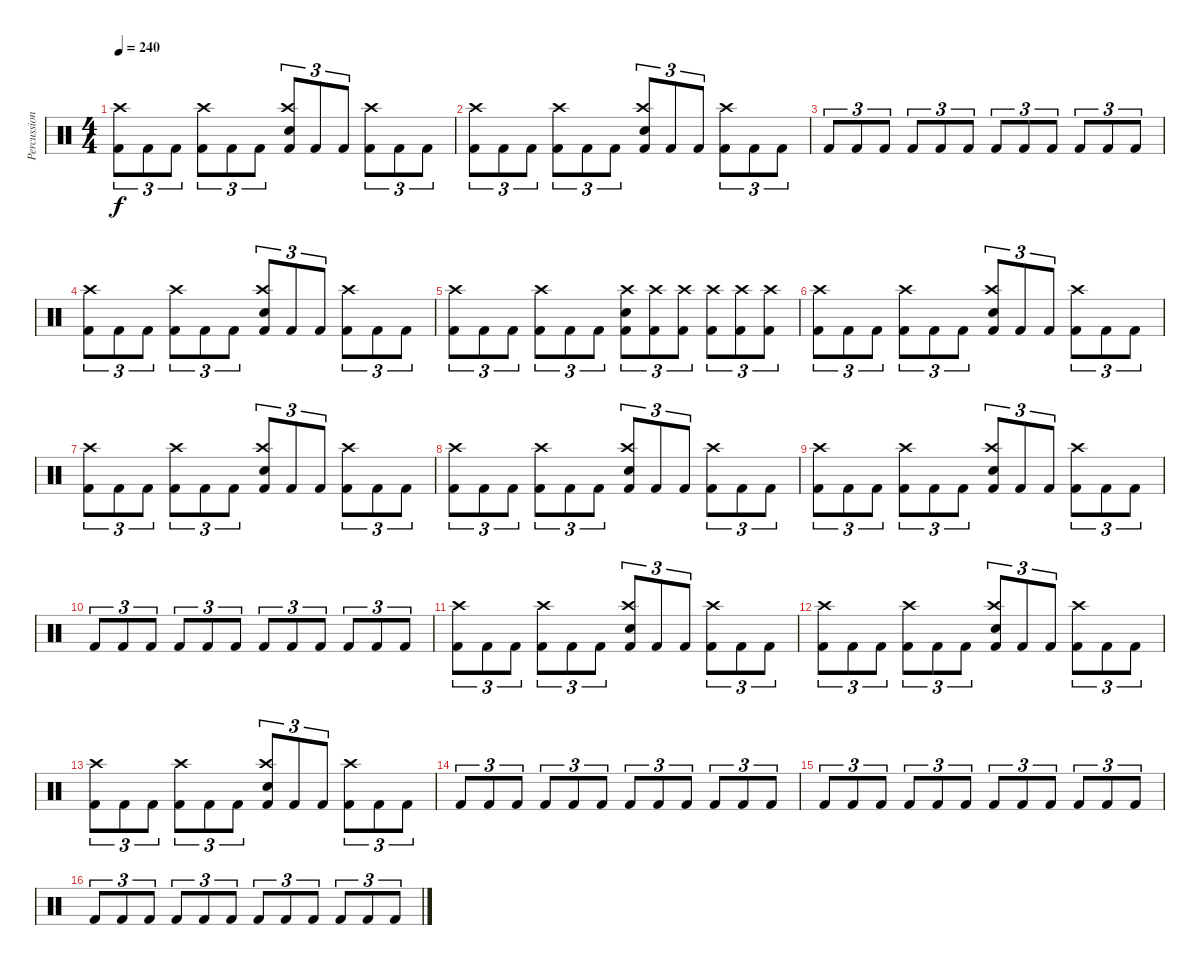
\track ("Percussion" "Percussion") {instrument percussion}
\staff {score}
\articulation defaults
\ts (4 4)
\tempo 240
\clef neutral
\ks c
("Kick (hit) 2" "Crash high (hit)").8{tu (3 2) dy f} "Kick (hit) 2".8{tu (3 2)} "Kick (hit) 2".8{tu (3 2)} ("Kick (hit) 2" "Crash high (hit)").8{tu (3 2)} "Kick (hit) 2".8{tu (3 2)} "Kick (hit) 2".8{tu (3 2)} ("Kick (hit) 2" "Crash high (hit)" "Electric Snare (hit)").8{tu (3 2)} "Kick (hit) 2".8{tu (3 2)} "Kick (hit) 2".8{tu (3 2)} ("Kick (hit) 2" "Crash high (hit)").8{tu (3 2)} "Kick (hit) 2".8{tu (3 2)} "Kick (hit) 2".8{tu (3 2)} |
("Kick (hit) 2" "Crash high (hit)").8{tu (3 2)} "Kick (hit) 2".8{tu (3 2)} "Kick (hit) 2".8{tu (3 2)} ("Kick (hit) 2" "Crash high (hit)").8{tu (3 2)} "Kick (hit) 2".8{tu (3 2)} "Kick (hit) 2".8{tu (3 2)} ("Kick (hit) 2" "Crash high (hit)" "Electric Snare (hit)").8{tu (3 2)} "Kick (hit) 2".8{tu (3 2)} "Kick (hit) 2".8{tu (3 2)} ("Kick (hit) 2" "Crash high (hit)").8{tu (3 2)} "Kick (hit) 2".8{tu (3 2)} "Kick (hit) 2".8{tu (3 2)} |
"Kick (hit) 2".8{tu (3 2)} "Kick (hit) 2".8{tu (3 2)} "Kick (hit) 2".8{tu (3 2)} "Kick (hit) 2".8{tu (3 2)} "Kick (hit) 2".8{tu (3 2)} "Kick (hit) 2".8{tu (3 2)} "Kick (hit) 2".8{tu (3 2)} "Kick (hit) 2".8{tu (3 2)} "Kick (hit) 2".8{tu (3 2)} "Kick (hit) 2".8{tu (3 2)} "Kick (hit) 2".8{tu (3 2)} "Kick (hit) 2".8{tu (3 2)} |
("Kick (hit) 2" "Crash high (hit)").8{tu (3 2)} "Kick (hit) 2".8{tu (3 2)} "Kick (hit) 2".8{tu (3 2)} ("Kick (hit) 2" "Crash high (hit)").8{tu (3 2)} "Kick (hit) 2".8{tu (3 2)} "Kick (hit) 2".8{tu (3 2)} ("Kick (hit) 2" "Crash high (hit)" "Electric Snare (hit)").8{tu (3 2)} "Kick (hit) 2".8{tu (3 2)} "Kick (hit) 2".8{tu (3 2)} ("Kick (hit) 2" "Crash high (hit)").8{tu (3 2)} "Kick (hit) 2".8{tu (3 2)} "Kick (hit) 2".8{tu (3 2)} |
("Kick (hit) 2" "Crash high (hit)").8{tu (3 2)} "Kick (hit) 2".8{tu (3 2)} "Kick (hit) 2".8{tu (3 2)} ("Kick (hit) 2" "Crash high (hit)").8{tu (3 2)} "Kick (hit) 2".8{tu (3 2)} "Kick (hit) 2".8{tu (3 2)} ("Kick (hit) 2" "Crash high (hit)" "Electric Snare (hit)").8{tu (3 2)} ("Kick (hit) 2" "Crash high (hit)").8{tu (3 2)} ("Kick (hit) 2" "Crash high (hit)").8{tu (3 2)} ("Kick (hit) 2" "Crash high (hit)").8{tu (3 2)} ("Kick (hit) 2" "Crash high (hit)").8{tu (3 2)} ("Kick (hit) 2" "Crash high (hit)").8{tu (3 2)} |
("Kick (hit) 2" "Crash high (hit)").8{tu (3 2)} "Kick (hit) 2".8{tu (3 2)} "Kick (hit) 2".8{tu (3 2)} ("Kick (hit) 2" "Crash high (hit)").8{tu (3 2)} "Kick (hit) 2".8{tu (3 2)} "Kick (hit) 2".8{tu (3 2)} ("Kick (hit) 2" "Crash high (hit)" "Electric Snare (hit)").8{tu (3 2)} "Kick (hit) 2".8{tu (3 2)} "Kick (hit) 2".8{tu (3 2)} ("Kick (hit) 2" "Crash high (hit)").8{tu (3 2)} "Kick (hit) 2".8{tu (3 2)} "Kick (hit) 2".8{tu (3 2)} |
("Kick (hit) 2" "Crash high (hit)").8{tu (3 2)} "Kick (hit) 2".8{tu (3 2)} "Kick (hit) 2".8{tu (3 2)} ("Kick (hit) 2" "Crash high (hit)").8{tu (3 2)} "Kick (hit) 2".8{tu (3 2)} "Kick (hit) 2".8{tu (3 2)} ("Kick (hit) 2" "Crash high (hit)" "Electric Snare (hit)").8{tu (3 2)} "Kick (hit) 2".8{tu (3 2)} "Kick (hit) 2".8{tu (3 2)} ("Kick (hit) 2" "Crash high (hit)").8{tu (3 2)} "Kick (hit) 2".8{tu (3 2)} "Kick (hit) 2".8{tu (3 2)} |
("Kick (hit) 2" "Crash high (hit)").8{tu (3 2)} "Kick (hit) 2".8{tu (3 2)} "Kick (hit) 2".8{tu (3 2)} ("Kick (hit) 2" "Crash high (hit)").8{tu (3 2)} "Kick (hit) 2".8{tu (3 2)} "Kick (hit) 2".8{tu (3 2)} ("Kick (hit) 2" "Crash high (hit)" "Electric Snare (hit)").8{tu (3 2)} "Kick (hit) 2".8{tu (3 2)} "Kick (hit) 2".8{tu (3 2)} ("Kick (hit) 2" "Crash high (hit)").8{tu (3 2)} "Kick (hit) 2".8{tu (3 2)} "Kick (hit) 2".8{tu (3 2)} |
("Kick (hit) 2" "Crash high (hit)").8{tu (3 2)} "Kick (hit) 2".8{tu (3 2)} "Kick (hit) 2".8{tu (3 2)} ("Kick (hit) 2" "Crash high (hit)").8{tu (3 2)} "Kick (hit) 2".8{tu (3 2)} "Kick (hit) 2".8{tu (3 2)} ("Kick (hit) 2" "Crash high (hit)" "Electric Snare (hit)").8{tu (3 2)} "Kick (hit) 2".8{tu (3 2)} "Kick (hit) 2".8{tu (3 2)} ("Kick (hit) 2" "Crash high (hit)").8{tu (3 2)} "Kick (hit) 2".8{tu (3 2)} "Kick (hit) 2".8{tu (3 2)} |
"Kick (hit) 2".8{tu (3 2)} "Kick (hit) 2".8{tu (3 2)} "Kick (hit) 2".8{tu (3 2)} "Kick (hit) 2".8{tu (3 2)} "Kick (hit) 2".8{tu (3 2)} "Kick (hit) 2".8{tu (3 2)} "Kick (hit) 2".8{tu (3 2)} "Kick (hit) 2".8{tu (3 2)} "Kick (hit) 2".8{tu (3 2)} "Kick (hit) 2".8{tu (3 2)} "Kick (hit) 2".8{tu (3 2)} "Kick (hit) 2".8{tu (3 2)} |
("Kick (hit) 2" "Crash high (hit)").8{tu (3 2)} "Kick (hit) 2".8{tu (3 2)} "Kick (hit) 2".8{tu (3 2)} ("Kick (hit) 2" "Crash high (hit)").8{tu (3 2)} "Kick (hit) 2".8{tu (3 2)} "Kick (hit) 2".8{tu (3 2)} ("Kick (hit) 2" "Crash high (hit)" "Electric Snare (hit)").8{tu (3 2)} "Kick (hit) 2".8{tu (3 2)} "Kick (hit) 2".8{tu (3 2)} ("Kick (hit) 2" "Crash high (hit)").8{tu (3 2)} "Kick (hit) 2".8{tu (3 2)} "Kick (hit) 2".8{tu (3 2)} |
("Kick (hit) 2" "Crash high (hit)").8{tu (3 2)} "Kick (hit) 2".8{tu (3 2)} "Kick (hit) 2".8{tu (3 2)} ("Kick (hit) 2" "Crash high (hit)").8{tu (3 2)} "Kick (hit) 2".8{tu (3 2)} "Kick (hit) 2".8{tu (3 2)} ("Kick (hit) 2" "Crash high (hit)" "Electric Snare (hit)").8{tu (3 2)} "Kick (hit) 2".8{tu (3 2)} "Kick (hit) 2".8{tu (3 2)} ("Kick (hit) 2" "Crash high (hit)").8{tu (3 2)} "Kick (hit) 2".8{tu (3 2)} "Kick (hit) 2".8{tu (3 2)} |
("Kick (hit) 2" "Crash high (hit)").8{tu (3 2)} "Kick (hit) 2".8{tu (3 2)} "Kick (hit) 2".8{tu (3 2)} ("Kick (hit) 2" "Crash high (hit)").8{tu (3 2)} "Kick (hit) 2".8{tu (3 2)} "Kick (hit) 2".8{tu (3 2)} ("Kick (hit) 2" "Crash high (hit)" "Electric Snare (hit)").8{tu (3 2)} "Kick (hit) 2".8{tu (3 2)} "Kick (hit) 2".8{tu (3 2)} ("Kick (hit) 2" "Crash high (hit)").8{tu (3 2)} "Kick (hit) 2".8{tu (3 2)} "Kick (hit) 2".8{tu (3 2)} |
"Kick (hit) 2".8{tu (3 2)} "Kick (hit) 2".8{tu (3 2)} "Kick (hit) 2".8{tu (3 2)} "Kick (hit) 2".8{tu (3 2)} "Kick (hit) 2".8{tu (3 2)} "Kick (hit) 2".8{tu (3 2)} "Kick (hit) 2".8{tu (3 2)} "Kick (hit) 2".8{tu (3 2)} "Kick (hit) 2".8{tu (3 2)} "Kick (hit) 2".8{tu (3 2)} "Kick (hit) 2".8{tu (3 2)} "Kick (hit) 2".8{tu (3 2)} |
"Kick (hit) 2".8{tu (3 2)} "Kick (hit) 2".8{tu (3 2)} "Kick (hit) 2".8{tu (3 2)} "Kick (hit) 2".8{tu (3 2)} "Kick (hit) 2".8{tu (3 2)} "Kick (hit) 2".8{tu (3 2)} "Kick (hit) 2".8{tu (3 2)} "Kick (hit) 2".8{tu (3 2)} "Kick (hit) 2".8{tu (3 2)} "Kick (hit) 2".8{tu (3 2)} "Kick (hit) 2".8{tu (3 2)} "Kick (hit) 2".8{tu (3 2)} |
"Kick (hit) 2".8{tu (3 2)} "Kick (hit) 2".8{tu (3 2)} "Kick (hit) 2".8{tu (3 2)} "Kick (hit) 2".8{tu (3 2)} "Kick (hit) 2".8{tu (3 2)} "Kick (hit) 2".8{tu (3 2)} "Kick (hit) 2".8{tu (3 2)} "Kick (hit) 2".8{tu (3 2)} "Kick (hit) 2".8{tu (3 2)} "Kick (hit) 2".8{tu (3 2)} "Kick (hit) 2".8{tu (3 2)} "Kick (hit) 2".8{tu (3 2)}
